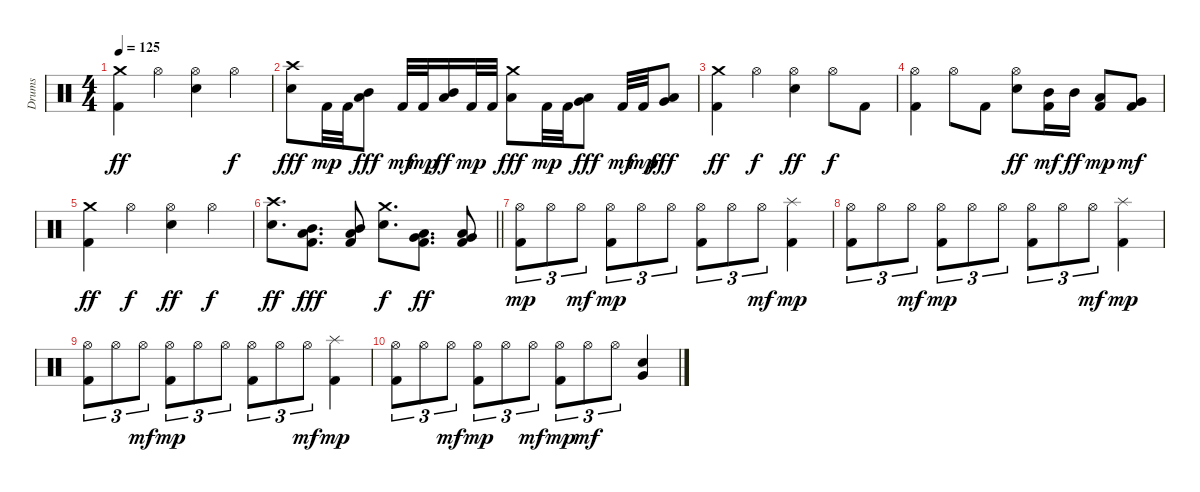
\track ("Drums" "Drums") {instrument percussion}
\staff {score}
\articulation defaults
\ts (4 4)
\tempo 125
\clef neutral
\ks c
("Crash medium (hit)" "Kick (hit) 2").4{dy ff} "Hi-Hat (open)".4 ("Hi-Hat (open)" "Snare (hit) 2").4 "Hi-Hat (open)".4{dy f} |
("Crash high (hit)" "Snare (hit) 2").8{dy fff} "Kick (hit) 2".32{dy mp} "Kick (hit) 2".32 ("Low Tom (hit)" "Mid Tom (hit)").8{dy fff} "Kick (hit) 2".32{dy mf} "Kick (hit) 2".32{dy mp} ("Low Tom (hit)" "Mid Tom (hit)").16{dy ff} "Kick (hit) 2".32{dy mp} "Kick (hit) 2".32 ("Low Tom (hit)" "Crash medium (hit)").8{dy fff} "Kick (hit) 2".32{dy mp} "Kick (hit) 2".32 ("Very Low Tom (hit)" "Low Tom (hit)").8{dy fff} "Kick (hit) 2".32{dy mf} "Kick (hit) 2".32{dy mp} ("Very Low Tom (hit)" "Low Tom (hit)").8{dy fff} |
("Crash medium (hit)" "Kick (hit) 2").4{dy ff} "Hi-Hat (open)".4{dy f} ("Hi-Hat (open)" "Snare (hit) 2").4{dy ff} "Hi-Hat (open)".8{dy f} "Kick (hit) 2".8 |
("Hi-Hat (open)" "Kick (hit) 2").4 "Hi-Hat (open)".8 "Kick (hit) 2".8 ("Hi-Hat (open)" "Snare (hit) 2").8{dy ff} ("Mid Tom (hit)" "Kick (hit) 2").16{dy mf} "Mid Tom (hit)".16{dy ff} ("Low Tom (hit)" "Kick (hit) 2").8{dy mp} ("Very Low Tom (hit)" "Kick (hit) 2").8{dy mf} |
("Crash medium (hit)" "Kick (hit) 2").4{dy ff} "Hi-Hat (open)".4{dy f} ("Hi-Hat (open)" "Snare (hit) 2").4{dy ff} "Hi-Hat (open)".4{dy f} |
\barLineRight lightlight
("Crash high (hit)" "Snare (hit) 2").8{d dy ff} ("Low Tom (hit)" "Mid Tom (hit)" "Kick (hit) 2").8{d dy fff} ("Low Tom (hit)" "Mid Tom (hit)" "Kick (hit) 2").8 ("Crash medium (hit)" "Snare (hit) 2").8{d dy f} ("Very Low Tom (hit)" "Low Tom (hit)" "Kick (hit) 2").8{d dy ff} ("Very Low Tom (hit)" "Low Tom (hit)" "Kick (hit) 2").8 |
("Hi-Hat (open)" "Kick (hit) 2").8{tu (3 2) dy mp} "Hi-Hat (open)".8{tu (3 2)} "Hi-Hat (open)".8{tu (3 2) dy mf} ("Hi-Hat (open)" "Kick (hit) 2").8{tu (3 2) dy mp} "Hi-Hat (open)".8{tu (3 2)} "Hi-Hat (open)".8{tu (3 2)} ("Hi-Hat (open)" "Kick (hit) 2").8{tu (3 2)} "Hi-Hat (open)".8{tu (3 2)} "Hi-Hat (open)".8{tu (3 2) dy mf} ("Splash (hit)" "Kick (hit) 2").4{dy mp} |
("Hi-Hat (open)" "Kick (hit) 2").8{tu (3 2)} "Hi-Hat (open)".8{tu (3 2)} "Hi-Hat (open)".8{tu (3 2) dy mf} ("Hi-Hat (open)" "Kick (hit) 2").8{tu (3 2) dy mp} "Hi-Hat (open)".8{tu (3 2)} "Hi-Hat (open)".8{tu (3 2)} ("Hi-Hat (open)" "Kick (hit) 2").8{tu (3 2)} "Hi-Hat (open)".8{tu (3 2)} "Hi-Hat (open)".8{tu (3 2) dy mf} ("Splash (hit)" "Kick (hit) 2").4{dy mp} |
("Hi-Hat (open)" "Kick (hit) 2").8{tu (3 2)} "Hi-Hat (open)".8{tu (3 2)} "Hi-Hat (open)".8{tu (3 2) dy mf} ("Hi-Hat (open)" "Kick (hit) 2").8{tu (3 2) dy mp} "Hi-Hat (open)".8{tu (3 2)} "Hi-Hat (open)".8{tu (3 2)} ("Hi-Hat (open)" "Kick (hit) 2").8{tu (3 2)} "Hi-Hat (open)".8{tu (3 2)} "Hi-Hat (open)".8{tu (3 2) dy mf} ("Splash (hit)" "Kick (hit) 2").4{dy mp} |
("Hi-Hat (open)" "Kick (hit) 2").8{tu (3 2)} "Hi-Hat (open)".8{tu (3 2)} "Hi-Hat (open)".8{tu (3 2) dy mf} ("Hi-Hat (open)" "Kick (hit) 2").8{tu (3 2) dy mp} "Hi-Hat (open)".8{tu (3 2)} "Hi-Hat (open)".8{tu (3 2) dy mf} ("Hi-Hat (open)" "Kick (hit) 2").8{tu (3 2) dy mp} "Hi-Hat (open)".8{tu (3 2) dy mf} "Hi-Hat (open)".8{tu (3 2)} ("Very Low Tom (hit)" "Snare (hit) 2").4
